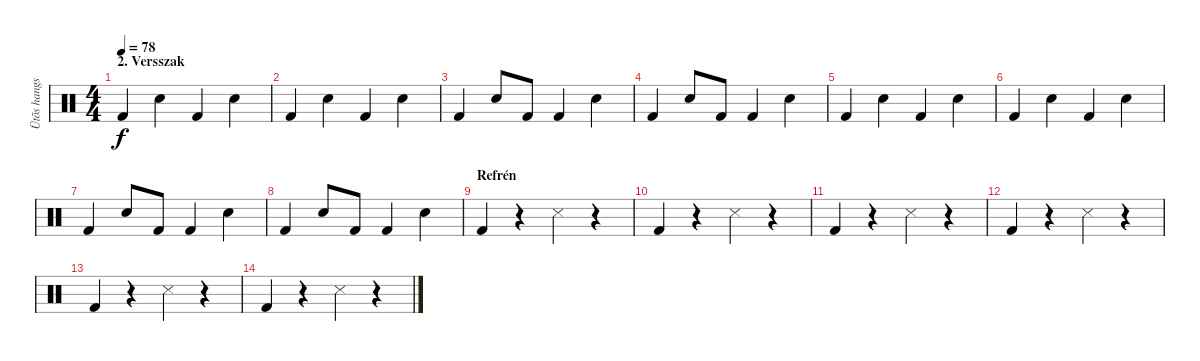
\track ("Ütõs hangszer" "Ütõs hangs") {instrument percussion}
\staff {score}
\articulation defaults
\ts (4 4)
\section ("" "2. Versszak")
\tempo 78
\clef neutral
\ks c "Kick (hit) 2".4{dy f} "Snare (hit) 2".4 "Kick (hit) 2".4 "Snare (hit) 2".4
|
"Kick (hit) 2".4 "Snare (hit) 2".4 "Kick (hit) 2".4 "Snare (hit) 2".4 |
"Kick (hit) 2".4 "Snare (hit) 2".8 "Kick (hit) 2".8 "Kick (hit) 2".4 "Snare (hit) 2".4 |
"Kick (hit) 2".4 "Snare (hit) 2".8 "Kick (hit) 2".8 "Kick (hit) 2".4 "Snare (hit) 2".4 |
"Kick (hit) 2".4 "Snare (hit) 2".4 "Kick (hit) 2".4 "Snare (hit) 2".4 |
"Kick (hit) 2".4 "Snare (hit) 2".4 "Kick (hit) 2".4 "Snare (hit) 2".4 |
"Kick (hit) 2".4 "Snare (hit) 2".8 "Kick (hit) 2".8 "Kick (hit) 2".4 "Snare (hit) 2".4 |
"Kick (hit) 2".4 "Snare (hit) 2".8 "Kick (hit) 2".8 "Kick (hit) 2".4 "Snare (hit) 2".4 |
\section ("" "Refrén")
"Kick (hit) 2".4 r.4 "Snare (side stick) 3".4 r.4 |
"Kick (hit) 2".4 r.4 "Snare (side stick) 3".4 r.4 |
"Kick (hit) 2".4 r.4 "Snare (side stick) 3".4 r.4 |
"Kick (hit) 2".4 r.4 "Snare (side stick) 3".4 r.4 |
"Kick (hit) 2".4 r.4 "Snare (side stick) 3".4 r.4 |
"Kick (hit) 2".4 r.4 "Snare (side stick) 3".4 r.4
